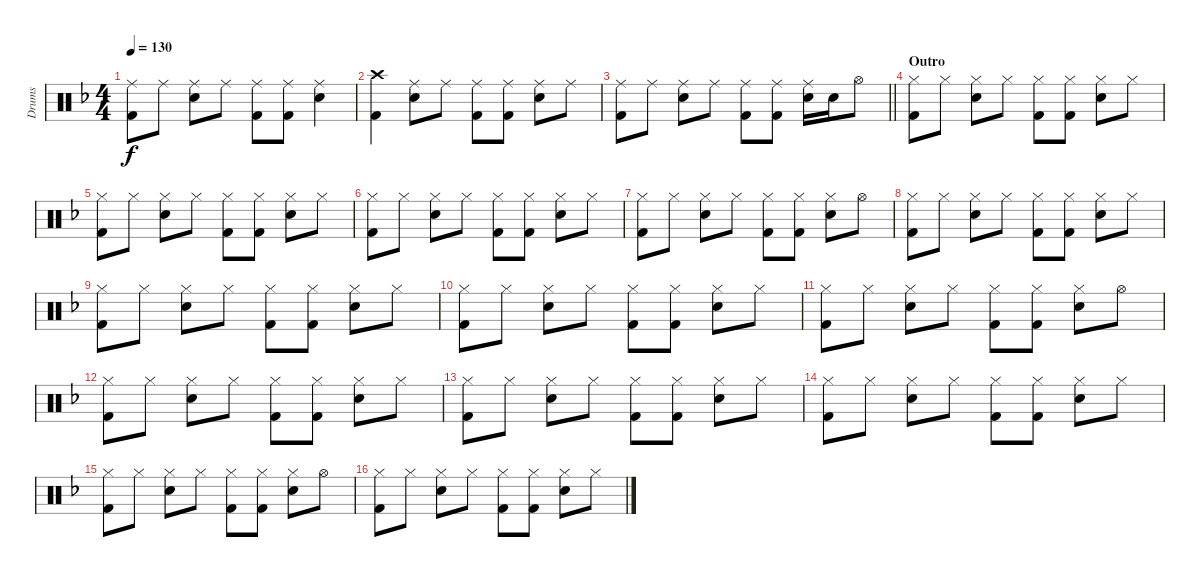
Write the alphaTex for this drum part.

\track ("Drums" "Drums") {instrument percussion}
\staff {score}
\articulation defaults
\ts (4 4)
\tempo 130
\clef neutral
\ks f
("Ride (middle)" "Kick (hit) 2").8{dy f} "Ride (middle)".8 ("Ride (middle)" "Snare (hit) 2").8 "Ride (middle)".8 ("Ride (middle)" "Kick (hit) 2").8 ("Ride (middle)" "Kick (hit) 2").8 ("Ride (middle)" "Snare (hit) 2").4 |
("Crash high (hit)" "Kick (hit) 2").4 ("Ride (middle)" "Snare (hit) 2").8 "Ride (middle)".8 ("Ride (middle)" "Kick (hit) 2").8 ("Ride (middle)" "Kick (hit) 2").8 ("Ride (middle)" "Snare (hit) 2").8 "Ride (middle)".8 |
\barLineRight lightlight
("Ride (middle)" "Kick (hit) 2").8 "Ride (middle)".8 ("Ride (middle)" "Snare (hit) 2").8 "Ride (middle)".8 ("Ride (middle)" "Kick (hit) 2").8 ("Ride (middle)" "Kick (hit) 2").8 ("Ride (middle)" "Snare (hit) 2").16 "Snare (hit) 2".16 "Hi-Hat (open)".8 |
\section ("" "Outro")
("Hi-Hat (closed)" "Kick (hit) 2").8 "Hi-Hat (closed)".8 ("Hi-Hat (closed)" "Snare (hit) 2").8 "Hi-Hat (closed)".8 ("Hi-Hat (closed)" "Kick (hit) 2").8 ("Hi-Hat (closed)" "Kick (hit) 2").8 ("Hi-Hat (closed)" "Snare (hit) 2").8 "Hi-Hat (closed)".8 |
("Hi-Hat (closed)" "Kick (hit) 2").8 "Hi-Hat (closed)".8 ("Hi-Hat (closed)" "Snare (hit) 2").8 "Hi-Hat (closed)".8 ("Hi-Hat (closed)" "Kick (hit) 2").8 ("Hi-Hat (closed)" "Kick (hit) 2").8 ("Hi-Hat (closed)" "Snare (hit) 2").8 "Hi-Hat (closed)".8 |
("Hi-Hat (closed)" "Kick (hit) 2").8 "Hi-Hat (closed)".8 ("Hi-Hat (closed)" "Snare (hit) 2").8 "Hi-Hat (closed)".8 ("Hi-Hat (closed)" "Kick (hit) 2").8 ("Hi-Hat (closed)" "Kick (hit) 2").8 ("Hi-Hat (closed)" "Snare (hit) 2").8 "Hi-Hat (closed)".8 |
("Hi-Hat (closed)" "Kick (hit) 2").8 "Hi-Hat (closed)".8 ("Hi-Hat (closed)" "Snare (hit) 2").8 "Hi-Hat (closed)".8 ("Hi-Hat (closed)" "Kick (hit) 2").8 ("Hi-Hat (closed)" "Kick (hit) 2").8 ("Hi-Hat (closed)" "Snare (hit) 2").8 "Hi-Hat (open)".8 |
("Hi-Hat (closed)" "Kick (hit) 2").8 "Hi-Hat (closed)".8 ("Hi-Hat (closed)" "Snare (hit) 2").8 "Hi-Hat (closed)".8 ("Hi-Hat (closed)" "Kick (hit) 2").8 ("Hi-Hat (closed)" "Kick (hit) 2").8 ("Hi-Hat (closed)" "Snare (hit) 2").8 "Hi-Hat (closed)".8 |
("Hi-Hat (closed)" "Kick (hit) 2").8 "Hi-Hat (closed)".8 ("Hi-Hat (closed)" "Snare (hit) 2").8 "Hi-Hat (closed)".8 ("Hi-Hat (closed)" "Kick (hit) 2").8 ("Hi-Hat (closed)" "Kick (hit) 2").8 ("Hi-Hat (closed)" "Snare (hit) 2").8 "Hi-Hat (closed)".8 |
("Hi-Hat (closed)" "Kick (hit) 2").8 "Hi-Hat (closed)".8 ("Hi-Hat (closed)" "Snare (hit) 2").8 "Hi-Hat (closed)".8 ("Hi-Hat (closed)" "Kick (hit) 2").8 ("Hi-Hat (closed)" "Kick (hit) 2").8 ("Hi-Hat (closed)" "Snare (hit) 2").8 "Hi-Hat (closed)".8 |
("Hi-Hat (closed)" "Kick (hit) 2").8 "Hi-Hat (closed)".8 ("Hi-Hat (closed)" "Snare (hit) 2").8 "Hi-Hat (closed)".8 ("Hi-Hat (closed)" "Kick (hit) 2").8 ("Hi-Hat (closed)" "Kick (hit) 2").8 ("Hi-Hat (closed)" "Snare (hit) 2").8 "Hi-Hat (open)".8 |
("Hi-Hat (closed)" "Kick (hit) 2").8 "Hi-Hat (closed)".8 ("Hi-Hat (closed)" "Snare (hit) 2").8 "Hi-Hat (closed)".8 ("Hi-Hat (closed)" "Kick (hit) 2").8 ("Hi-Hat (closed)" "Kick (hit) 2").8 ("Hi-Hat (closed)" "Snare (hit) 2").8 "Hi-Hat (closed)".8 |
("Hi-Hat (closed)" "Kick (hit) 2").8 "Hi-Hat (closed)".8 ("Hi-Hat (closed)" "Snare (hit) 2").8 "Hi-Hat (closed)".8 ("Hi-Hat (closed)" "Kick (hit) 2").8 ("Hi-Hat (closed)" "Kick (hit) 2").8 ("Hi-Hat (closed)" "Snare (hit) 2").8 "Hi-Hat (closed)".8 |
("Hi-Hat (closed)" "Kick (hit) 2").8 "Hi-Hat (closed)".8 ("Hi-Hat (closed)" "Snare (hit) 2").8 "Hi-Hat (closed)".8 ("Hi-Hat (closed)" "Kick (hit) 2").8 ("Hi-Hat (closed)" "Kick (hit) 2").8 ("Hi-Hat (closed)" "Snare (hit) 2").8 "Hi-Hat (closed)".8 |
("Hi-Hat (closed)" "Kick (hit) 2").8 "Hi-Hat (closed)".8 ("Hi-Hat (closed)" "Snare (hit) 2").8 "Hi-Hat (closed)".8 ("Hi-Hat (closed)" "Kick (hit) 2").8 ("Hi-Hat (closed)" "Kick (hit) 2").8 ("Hi-Hat (closed)" "Snare (hit) 2").8 "Hi-Hat (open)".8 |
("Hi-Hat (closed)" "Kick (hit) 2").8 "Hi-Hat (closed)".8 ("Hi-Hat (closed)" "Snare (hit) 2").8 "Hi-Hat (closed)".8 ("Hi-Hat (closed)" "Kick (hit) 2").8 ("Hi-Hat (closed)" "Kick (hit) 2").8 ("Hi-Hat (closed)" "Snare (hit) 2").8 "Hi-Hat (closed)".8
